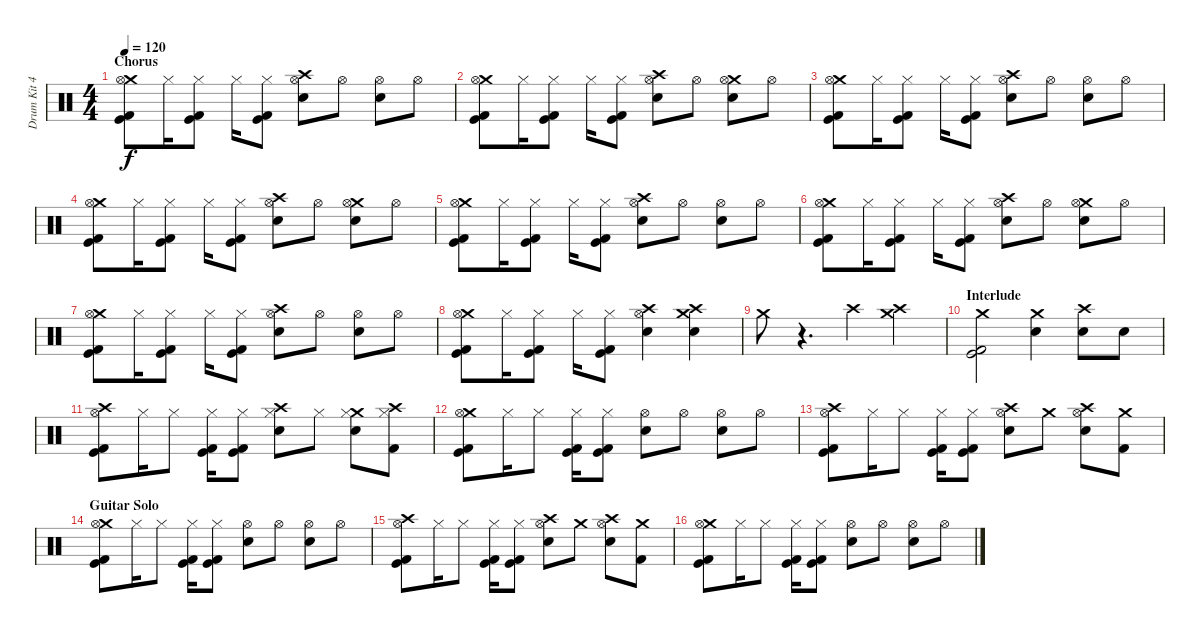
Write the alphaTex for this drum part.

\track ("Drum Kit 42" "Drum Kit 4") {instrument percussion}
\staff {score}
\articulation defaults
\ts (4 4)
\section ("" "Chorus")
\tempo 120
\clef neutral
\ks c
("Crash medium (hit)" "Hi-Hat (open)" "Kick (hit)" "Kick (hit) 2").8{dy f} "Hi-Hat (closed)".16 ("Hi-Hat (closed)" "Kick (hit)" "Kick (hit) 2").8 "Hi-Hat (closed)".16 ("Hi-Hat (closed)" "Kick (hit)" "Kick (hit) 2").8 ("Crash high (hit)" "Hi-Hat (open)" "Snare (hit) 2").8 "Hi-Hat (open)".8 ("Hi-Hat (open)" "Snare (hit) 2").8 "Hi-Hat (open)".8 |
("Crash medium (hit)" "Hi-Hat (open)" "Kick (hit)" "Kick (hit) 2").8 "Hi-Hat (closed)".16 ("Hi-Hat (closed)" "Kick (hit)" "Kick (hit) 2").8 "Hi-Hat (closed)".16 ("Hi-Hat (closed)" "Kick (hit)" "Kick (hit) 2").8 ("Crash high (hit)" "Hi-Hat (open)" "Snare (hit) 2").8 "Hi-Hat (open)".8 ("Crash medium (hit)" "Hi-Hat (open)" "Snare (hit) 2").8 "Hi-Hat (open)".8 |
("Crash medium (hit)" "Hi-Hat (open)" "Kick (hit)" "Kick (hit) 2").8 "Hi-Hat (closed)".16 ("Hi-Hat (closed)" "Kick (hit)" "Kick (hit) 2").8 "Hi-Hat (closed)".16 ("Hi-Hat (closed)" "Kick (hit)" "Kick (hit) 2").8 ("Crash high (hit)" "Hi-Hat (open)" "Snare (hit) 2").8 "Hi-Hat (open)".8 ("Hi-Hat (open)" "Snare (hit) 2").8 "Hi-Hat (open)".8 |
("Crash medium (hit)" "Hi-Hat (open)" "Kick (hit)" "Kick (hit) 2").8 "Hi-Hat (closed)".16 ("Hi-Hat (closed)" "Kick (hit)" "Kick (hit) 2").8 "Hi-Hat (closed)".16 ("Hi-Hat (closed)" "Kick (hit)" "Kick (hit) 2").8 ("Crash high (hit)" "Hi-Hat (open)" "Snare (hit) 2").8 "Hi-Hat (open)".8 ("Crash medium (hit)" "Hi-Hat (open)" "Snare (hit) 2").8 "Hi-Hat (open)".8 |
("Crash medium (hit)" "Hi-Hat (open)" "Kick (hit)" "Kick (hit) 2").8 "Hi-Hat (closed)".16 ("Hi-Hat (closed)" "Kick (hit)" "Kick (hit) 2").8 "Hi-Hat (closed)".16 ("Hi-Hat (closed)" "Kick (hit)" "Kick (hit) 2").8 ("Crash high (hit)" "Hi-Hat (open)" "Snare (hit) 2").8 "Hi-Hat (open)".8 ("Hi-Hat (open)" "Snare (hit) 2").8 "Hi-Hat (open)".8 |
("Crash medium (hit)" "Hi-Hat (open)" "Kick (hit)" "Kick (hit) 2").8 "Hi-Hat (closed)".16 ("Hi-Hat (closed)" "Kick (hit)" "Kick (hit) 2").8 "Hi-Hat (closed)".16 ("Hi-Hat (closed)" "Kick (hit)" "Kick (hit) 2").8 ("Crash high (hit)" "Hi-Hat (open)" "Snare (hit) 2").8 "Hi-Hat (open)".8 ("Crash medium (hit)" "Hi-Hat (open)" "Snare (hit) 2").8 "Hi-Hat (open)".8 |
("Crash medium (hit)" "Hi-Hat (open)" "Kick (hit)" "Kick (hit) 2").8 "Hi-Hat (closed)".16 ("Hi-Hat (closed)" "Kick (hit)" "Kick (hit) 2").8 "Hi-Hat (closed)".16 ("Hi-Hat (closed)" "Kick (hit)" "Kick (hit) 2").8 ("Crash high (hit)" "Hi-Hat (open)" "Snare (hit) 2").8 "Hi-Hat (open)".8 ("Hi-Hat (open)" "Snare (hit) 2").8 "Hi-Hat (open)".8 |
("Crash medium (hit)" "Hi-Hat (open)" "Kick (hit)" "Kick (hit) 2").8 "Hi-Hat (closed)".16 ("Hi-Hat (closed)" "Kick (hit)" "Kick (hit) 2").8 "Hi-Hat (closed)".16 ("Hi-Hat (closed)" "Kick (hit)" "Kick (hit) 2").8 ("Crash high (hit)" "Hi-Hat (open)" "Snare (hit) 2").4 ("Crash medium (hit)" "Crash high (hit)" "Snare (hit) 2").4 |
"Crash medium (hit)".8 r.4{d} "Crash high (hit)".4 ("Crash medium (hit)" "Crash high (hit)").4 |
\section ("" "Interlude")
("Crash medium (hit)" "Kick (hit)" "Kick (hit) 2").2 ("Crash medium (hit)" "Snare (hit) 2").4 ("Crash high (hit)" "Snare (hit) 2").8 "Snare (hit) 2".8 |
("Crash high (hit)" "Hi-Hat (open)" "Kick (hit)" "Kick (hit) 2").8 "Hi-Hat (closed)".16 "Hi-Hat (closed)".8 ("Hi-Hat (closed)" "Kick (hit)" "Kick (hit) 2").16 ("Hi-Hat (closed)" "Kick (hit)" "Kick (hit) 2").8 ("Crash high (hit)" "Hi-Hat (closed)" "Snare (hit) 2").8 "Hi-Hat (closed)".8 ("Crash medium (hit)" "Hi-Hat (closed)" "Snare (hit) 2").8 ("Crash high (hit)" "Hi-Hat (closed)" "Kick (hit) 2").8 |
("Crash medium (hit)" "Hi-Hat (open)" "Kick (hit)" "Kick (hit) 2").8 "Hi-Hat (closed)".16 "Hi-Hat (closed)".8 ("Hi-Hat (closed)" "Kick (hit)" "Kick (hit) 2").16 ("Hi-Hat (closed)" "Kick (hit)" "Kick (hit) 2").8 ("Hi-Hat (open)" "Snare (hit) 2").8 "Hi-Hat (open)".8 ("Hi-Hat (open)" "Snare (hit) 2").8 "Hi-Hat (open)".8 |
("Crash high (hit)" "Hi-Hat (open)" "Kick (hit)" "Kick (hit) 2").8 "Hi-Hat (closed)".16 "Hi-Hat (closed)".8 ("Hi-Hat (closed)" "Kick (hit)" "Kick (hit) 2").16 ("Hi-Hat (closed)" "Kick (hit)" "Kick (hit) 2").8 ("Crash high (hit)" "Hi-Hat (open)" "Snare (hit) 2").8 "Crash medium (hit)".8 ("Crash high (hit)" "Hi-Hat (open)" "Snare (hit) 2").8 ("Crash medium (hit)" "Kick (hit) 2").8 |
\section ("" "Guitar Solo")
("Crash medium (hit)" "Hi-Hat (open)" "Kick (hit)" "Kick (hit) 2").8 "Hi-Hat (closed)".16 "Hi-Hat (closed)".8 ("Hi-Hat (closed)" "Kick (hit)" "Kick (hit) 2").16 ("Hi-Hat (closed)" "Kick (hit)" "Kick (hit) 2").8 ("Hi-Hat (open)" "Snare (hit) 2").8 "Hi-Hat (open)".8 ("Hi-Hat (open)" "Snare (hit) 2").8 "Hi-Hat (open)".8 |
("Crash high (hit)" "Hi-Hat (open)" "Kick (hit)" "Kick (hit) 2").8 "Hi-Hat (closed)".16 "Hi-Hat (closed)".8 ("Hi-Hat (closed)" "Kick (hit)" "Kick (hit) 2").16 ("Hi-Hat (closed)" "Kick (hit)" "Kick (hit) 2").8 ("Crash high (hit)" "Hi-Hat (open)" "Snare (hit) 2").8 "Crash medium (hit)".8 ("Crash high (hit)" "Hi-Hat (open)" "Snare (hit) 2").8 ("Crash medium (hit)" "Kick (hit) 2").8 |
("Crash medium (hit)" "Hi-Hat (open)" "Kick (hit)" "Kick (hit) 2").8 "Hi-Hat (closed)".16 "Hi-Hat (closed)".8 ("Hi-Hat (closed)" "Kick (hit)" "Kick (hit) 2").16 ("Hi-Hat (closed)" "Kick (hit)" "Kick (hit) 2").8 ("Hi-Hat (open)" "Snare (hit) 2").8 "Hi-Hat (open)".8 ("Hi-Hat (open)" "Snare (hit) 2").8 "Hi-Hat (open)".8
